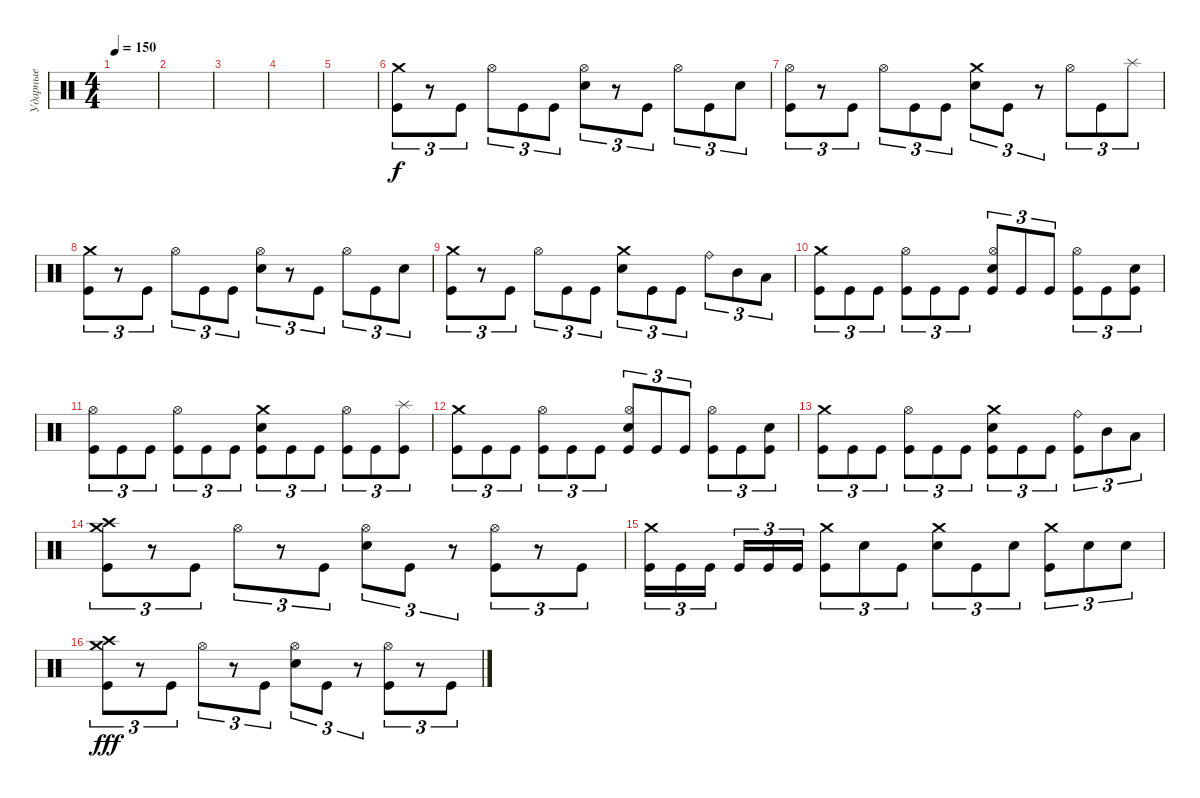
\track ("Ударные" "Ударные") {instrument percussion}
\staff {score}
\articulation defaults
\ts (4 4)
\tempo 150
\clef neutral
\ks c
|
|
|
|
|
("Crash medium (hit)" "Kick (hit)").8{tu (3 2)} r.8{tu (3 2)} "Kick (hit)".8{tu (3 2)} "Hi-Hat (open)".8{tu (3 2)} "Kick (hit)".8{tu (3 2)} "Kick (hit)".8{tu (3 2)} ("Electric Snare (hit)" "Hi-Hat (open)").8{tu (3 2)} r.8{tu (3 2)} "Kick (hit)".8{tu (3 2)} "Hi-Hat (open)".8{tu (3 2)} "Kick (hit)".8{tu (3 2)} "Electric Snare (hit)".8{tu (3 2)} |
("Kick (hit)" "Hi-Hat (open)").8{tu (3 2)} r.8{tu (3 2)} "Kick (hit)".8{tu (3 2)} "Hi-Hat (open)".8{tu (3 2)} "Kick (hit)".8{tu (3 2)} "Kick (hit)".8{tu (3 2)} ("Electric Snare (hit)" "Crash medium (hit)").8{tu (3 2)} "Kick (hit)".8{tu (3 2)} r.8{tu (3 2)} "Hi-Hat (open)".8{tu (3 2)} "Kick (hit)".8{tu (3 2)} "Splash (hit)".8{tu (3 2)} |
("Crash medium (hit)" "Kick (hit)").8{tu (3 2)} r.8{tu (3 2)} "Kick (hit)".8{tu (3 2)} "Hi-Hat (open)".8{tu (3 2)} "Kick (hit)".8{tu (3 2)} "Kick (hit)".8{tu (3 2)} ("Electric Snare (hit)" "Hi-Hat (open)").8{tu (3 2)} r.8{tu (3 2)} "Kick (hit)".8{tu (3 2)} "Hi-Hat (open)".8{tu (3 2)} "Kick (hit)".8{tu (3 2)} "Electric Snare (hit)".8{tu (3 2)} |
("Kick (hit)" "Crash medium (hit)").8{tu (3 2)} r.8{tu (3 2)} "Kick (hit)".8{tu (3 2)} "Hi-Hat (open)".8{tu (3 2)} "Kick (hit)".8{tu (3 2)} "Kick (hit)".8{tu (3 2)} ("Electric Snare (hit)" "Crash medium (hit)").8{tu (3 2)} "Kick (hit)".8{tu (3 2)} "Kick (hit)".8{tu (3 2)} "Ride (bell)".8{tu (3 2)} "Mid Tom (hit)".8{tu (3 2)} "Low Tom (hit)".8{tu (3 2)} |
("Crash medium (hit)" "Kick (hit)").8{tu (3 2)} "Kick (hit)".8{tu (3 2)} "Kick (hit)".8{tu (3 2)} ("Hi-Hat (open)" "Kick (hit)").8{tu (3 2)} "Kick (hit)".8{tu (3 2)} "Kick (hit)".8{tu (3 2)} ("Electric Snare (hit)" "Hi-Hat (open)" "Kick (hit)").8{tu (3 2)} "Kick (hit)".8{tu (3 2)} "Kick (hit)".8{tu (3 2)} ("Hi-Hat (open)" "Kick (hit)").8{tu (3 2)} "Kick (hit)".8{tu (3 2)} ("Electric Snare (hit)" "Kick (hit)").8{tu (3 2)} |
("Kick (hit)" "Hi-Hat (open)").8{tu (3 2)} "Kick (hit)".8{tu (3 2)} "Kick (hit)".8{tu (3 2)} ("Hi-Hat (open)" "Kick (hit)").8{tu (3 2)} "Kick (hit)".8{tu (3 2)} "Kick (hit)".8{tu (3 2)} ("Electric Snare (hit)" "Crash medium (hit)" "Kick (hit)").8{tu (3 2)} "Kick (hit)".8{tu (3 2)} "Kick (hit)".8{tu (3 2)} ("Hi-Hat (open)" "Kick (hit)").8{tu (3 2)} "Kick (hit)".8{tu (3 2)} ("Splash (hit)" "Kick (hit)").8{tu (3 2)} |
("Crash medium (hit)" "Kick (hit)").8{tu (3 2)} "Kick (hit)".8{tu (3 2)} "Kick (hit)".8{tu (3 2)} ("Hi-Hat (open)" "Kick (hit)").8{tu (3 2)} "Kick (hit)".8{tu (3 2)} "Kick (hit)".8{tu (3 2)} ("Electric Snare (hit)" "Hi-Hat (open)" "Kick (hit)").8{tu (3 2)} "Kick (hit)".8{tu (3 2)} "Kick (hit)".8{tu (3 2)} ("Hi-Hat (open)" "Kick (hit)").8{tu (3 2)} "Kick (hit)".8{tu (3 2)} ("Electric Snare (hit)" "Kick (hit)").8{tu (3 2)} |
("Kick (hit)" "Crash medium (hit)").8{tu (3 2)} "Kick (hit)".8{tu (3 2)} "Kick (hit)".8{tu (3 2)} ("Hi-Hat (open)" "Kick (hit)").8{tu (3 2)} "Kick (hit)".8{tu (3 2)} "Kick (hit)".8{tu (3 2)} ("Electric Snare (hit)" "Crash medium (hit)" "Kick (hit)").8{tu (3 2)} "Kick (hit)".8{tu (3 2)} "Kick (hit)".8{tu (3 2)} ("Ride (bell)" "Kick (hit)").8{tu (3 2)} "Mid Tom (hit)".8{tu (3 2)} "Low Tom (hit)".8{tu (3 2)} |
("Crash high (hit)" "Kick (hit)" "Crash medium (hit)").8{tu (3 2)} r.8{tu (3 2)} "Kick (hit)".8{tu (3 2)} "Hi-Hat (open)".8{tu (3 2)} r.8{tu (3 2)} "Kick (hit)".8{tu (3 2)} ("Electric Snare (hit)" "Hi-Hat (open)").8{tu (3 2)} "Kick (hit)".8{tu (3 2)} r.8{tu (3 2)} ("Kick (hit)" "Hi-Hat (open)").8{tu (3 2)} r.8{tu (3 2)} "Kick (hit)".8{tu (3 2)} |
("Crash medium (hit)" "Kick (hit)").16{tu (3 2)} "Kick (hit)".16{tu (3 2)} "Kick (hit)".16{tu (3 2) beam splitsecondary} "Kick (hit)".16{tu (3 2)} "Kick (hit)".16{tu (3 2)} "Kick (hit)".16{tu (3 2)} ("Kick (hit)" "Crash medium (hit)").8{tu (3 2)} "Electric Snare (hit)".8{tu (3 2)} "Kick (hit)".8{tu (3 2)} ("Electric Snare (hit)" "Crash medium (hit)").8{tu (3 2)} "Kick (hit)".8{tu (3 2)} "Electric Snare (hit)".8{tu (3 2)} ("Crash medium (hit)" "Kick (hit)").8{tu (3 2)} "Electric Snare (hit)".8{tu (3 2)} "Electric Snare (hit)".8{tu (3 2) dy f} |
("Crash high (hit)" "Kick (hit)" "Crash medium (hit)").8{tu (3 2) dy fff} r.8{tu (3 2)} "Kick (hit)".8{tu (3 2)} "Hi-Hat (open)".8{tu (3 2)} r.8{tu (3 2)} "Kick (hit)".8{tu (3 2)} ("Electric Snare (hit)" "Hi-Hat (open)").8{tu (3 2)} "Kick (hit)".8{tu (3 2)} r.8{tu (3 2)} ("Kick (hit)" "Hi-Hat (open)").8{tu (3 2)} r.8{tu (3 2)} "Kick (hit)".8{tu (3 2)}
